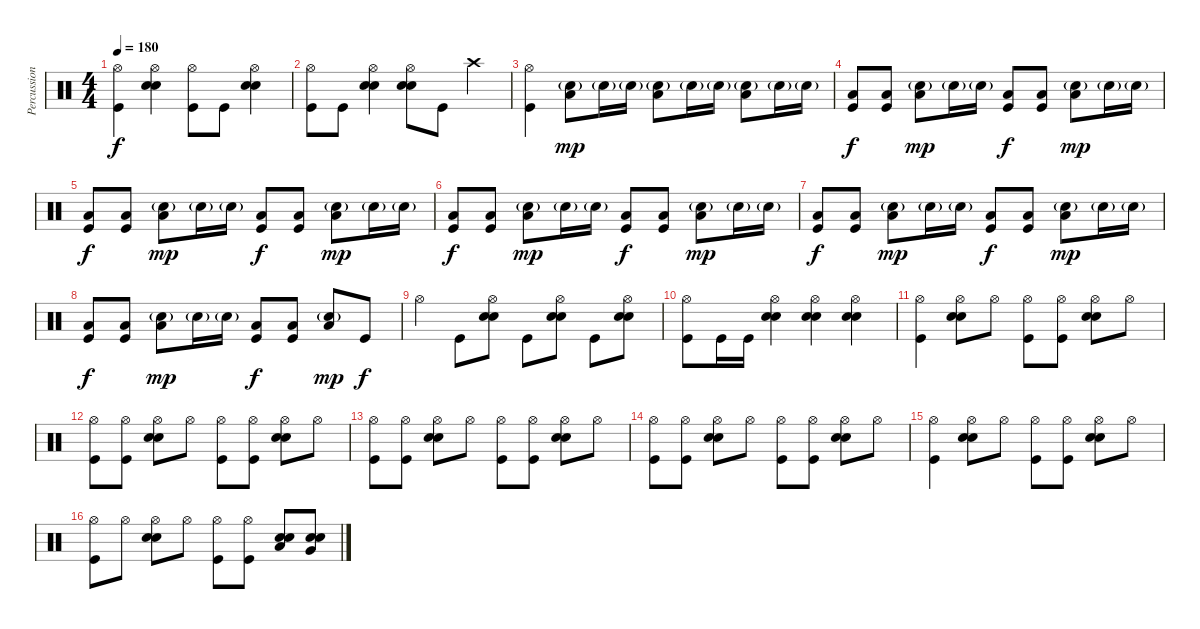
\track ("Percussion" "Percussion") {instrument percussion}
\staff {score}
\articulation defaults
\ts (4 4)
\tempo 180
\clef neutral
\ks c
("Hi-Hat (open)" "Kick (hit)").4{dy f} ("Hi-Hat (open)" "Snare (hit) 2" "Electric Snare (hit)").4 ("Hi-Hat (open)" "Kick (hit)").8 "Kick (hit)".8 ("Hi-Hat (open)" "Snare (hit) 2" "Electric Snare (hit)").4 |
("Hi-Hat (open)" "Kick (hit)").8 "Kick (hit)".8 ("Hi-Hat (open)" "Snare (hit) 2" "Electric Snare (hit)").4 ("Hi-Hat (open)" "Snare (hit) 2" "Electric Snare (hit)").8 "Kick (hit)".8 "Crash high (hit)".4 |
("Hi-Hat (open)" "Kick (hit)").4 ("Snare (hit) 2"{g} "Low Floor Tom (hit)").8{dy mp} "Snare (hit) 2"{g}.16 "Electric Snare (hit)"{g}.16 ("Snare (hit) 2"{g} "Low Floor Tom (hit)").8 "Snare (hit) 2"{g}.16 "Electric Snare (hit)"{g}.16 ("Snare (hit) 2"{g} "Low Floor Tom (hit)").8 "Snare (hit) 2"{g}.16 "Electric Snare (hit)"{g}.16 |
("Low Floor Tom (hit)" "Kick (hit)").8{dy f} ("Low Floor Tom (hit)" "Kick (hit)").8 ("Snare (hit) 2"{g} "Low Floor Tom (hit)").8{dy mp} "Snare (hit) 2"{g}.16 "Electric Snare (hit)"{g}.16 ("Low Floor Tom (hit)" "Kick (hit)").8{dy f} ("Low Floor Tom (hit)" "Kick (hit)").8 ("Snare (hit) 2"{g} "Low Floor Tom (hit)").8{dy mp} "Snare (hit) 2"{g}.16 "Electric Snare (hit)"{g}.16 |
("Low Floor Tom (hit)" "Kick (hit)").8{dy f} ("Low Floor Tom (hit)" "Kick (hit)").8 ("Snare (hit) 2"{g} "Low Floor Tom (hit)").8{dy mp} "Snare (hit) 2"{g}.16 "Electric Snare (hit)"{g}.16 ("Low Floor Tom (hit)" "Kick (hit)").8{dy f} ("Low Floor Tom (hit)" "Kick (hit)").8 ("Snare (hit) 2"{g} "Low Floor Tom (hit)").8{dy mp} "Snare (hit) 2"{g}.16 "Electric Snare (hit)"{g}.16 |
("Low Floor Tom (hit)" "Kick (hit)").8{dy f} ("Low Floor Tom (hit)" "Kick (hit)").8 ("Snare (hit) 2"{g} "Low Floor Tom (hit)").8{dy mp} "Snare (hit) 2"{g}.16 "Electric Snare (hit)"{g}.16 ("Low Floor Tom (hit)" "Kick (hit)").8{dy f} ("Low Floor Tom (hit)" "Kick (hit)").8 ("Snare (hit) 2"{g} "Low Floor Tom (hit)").8{dy mp} "Snare (hit) 2"{g}.16 "Electric Snare (hit)"{g}.16 |
("Low Floor Tom (hit)" "Kick (hit)").8{dy f} ("Low Floor Tom (hit)" "Kick (hit)").8 ("Snare (hit) 2"{g} "Low Floor Tom (hit)").8{dy mp} "Snare (hit) 2"{g}.16 "Electric Snare (hit)"{g}.16 ("Low Floor Tom (hit)" "Kick (hit)").8{dy f} ("Low Floor Tom (hit)" "Kick (hit)").8 ("Snare (hit) 2"{g} "Low Floor Tom (hit)").8{dy mp} "Snare (hit) 2"{g}.16 "Electric Snare (hit)"{g}.16 |
("Low Floor Tom (hit)" "Kick (hit)").8{dy f} ("Low Floor Tom (hit)" "Kick (hit)").8 ("Snare (hit) 2"{g} "Low Floor Tom (hit)").8{dy mp} "Snare (hit) 2"{g}.16 "Electric Snare (hit)"{g}.16 ("Low Floor Tom (hit)" "Kick (hit)").8{dy f} ("Low Floor Tom (hit)" "Kick (hit)").8 ("Snare (hit) 2"{g} "Low Floor Tom (hit)").8{dy mp} "Kick (hit)".8{dy f} |
"Hi-Hat (open)".4 "Kick (hit)".8 ("Hi-Hat (open)" "Snare (hit) 2" "Electric Snare (hit)").8 "Kick (hit)".8 ("Hi-Hat (open)" "Snare (hit) 2" "Electric Snare (hit)").8 "Kick (hit)".8 ("Hi-Hat (open)" "Snare (hit) 2" "Electric Snare (hit)").8 |
("Hi-Hat (open)" "Kick (hit)").8 "Kick (hit)".16 "Kick (hit)".16 ("Hi-Hat (open)" "Snare (hit) 2" "Electric Snare (hit)").4 ("Hi-Hat (open)" "Snare (hit) 2" "Electric Snare (hit)").4 ("Hi-Hat (open)" "Snare (hit) 2" "Electric Snare (hit)").4 |
("Hi-Hat (open)" "Kick (hit)").4 ("Hi-Hat (open)" "Snare (hit) 2" "Electric Snare (hit)").8 "Hi-Hat (open)".8 ("Hi-Hat (open)" "Kick (hit)").8 ("Hi-Hat (open)" "Kick (hit)").8 ("Hi-Hat (open)" "Snare (hit) 2" "Electric Snare (hit)").8 "Hi-Hat (open)".8 |
("Hi-Hat (open)" "Kick (hit)").8 ("Hi-Hat (open)" "Kick (hit)").8 ("Hi-Hat (open)" "Snare (hit) 2" "Electric Snare (hit)").8 "Hi-Hat (open)".8 ("Hi-Hat (open)" "Kick (hit)").8 ("Hi-Hat (open)" "Kick (hit)").8 ("Hi-Hat (open)" "Snare (hit) 2" "Electric Snare (hit)").8 "Hi-Hat (open)".8 |
("Hi-Hat (open)" "Kick (hit)").8 ("Hi-Hat (open)" "Kick (hit)").8 ("Hi-Hat (open)" "Snare (hit) 2" "Electric Snare (hit)").8 "Hi-Hat (open)".8 ("Hi-Hat (open)" "Kick (hit)").8 ("Hi-Hat (open)" "Kick (hit)").8 ("Hi-Hat (open)" "Snare (hit) 2" "Electric Snare (hit)").8 "Hi-Hat (open)".8 |
("Hi-Hat (open)" "Kick (hit)").8 ("Hi-Hat (open)" "Kick (hit)").8 ("Hi-Hat (open)" "Snare (hit) 2" "Electric Snare (hit)").8 "Hi-Hat (open)".8 ("Hi-Hat (open)" "Kick (hit)").8 ("Hi-Hat (open)" "Kick (hit)").8 ("Hi-Hat (open)" "Snare (hit) 2" "Electric Snare (hit)").8 "Hi-Hat (open)".8 |
("Hi-Hat (open)" "Kick (hit)").4 ("Hi-Hat (open)" "Snare (hit) 2" "Electric Snare (hit)").8 "Hi-Hat (open)".8 ("Hi-Hat (open)" "Kick (hit)").8 ("Hi-Hat (open)" "Kick (hit)").8 ("Hi-Hat (open)" "Snare (hit) 2" "Electric Snare (hit)").8 "Hi-Hat (open)".8 |
("Hi-Hat (open)" "Kick (hit)").8 "Hi-Hat (open)".8 ("Hi-Hat (open)" "Snare (hit) 2" "Electric Snare (hit)").8 "Hi-Hat (open)".8 ("Hi-Hat (open)" "Kick (hit)").8 ("Hi-Hat (open)" "Kick (hit)").8 ("Low Tom (hit)" "Snare (hit) 2" "Electric Snare (hit)").8 ("Very Low Tom (hit)" "Snare (hit) 2" "Electric Snare (hit)").8
